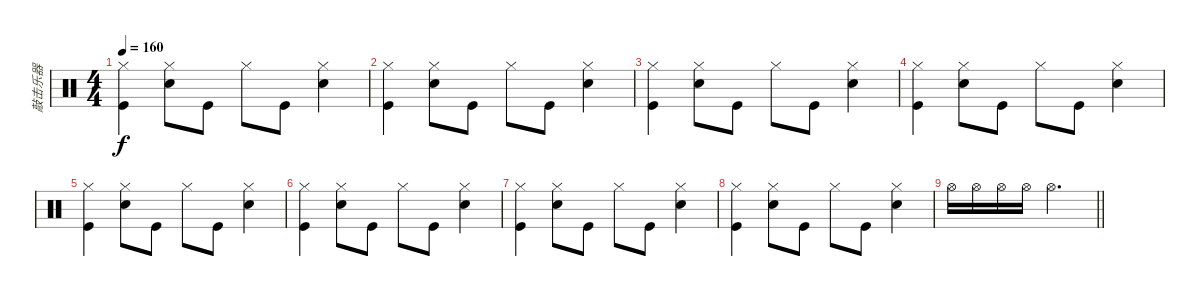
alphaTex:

\track ("敲击乐器" "敲击乐器") {instrument percussion}
\staff {score}
\articulation defaults
\ts (4 4)
\tempo 160
\clef neutral
\ks c
("Kick (hit)" "Hi-Hat (closed)").4{dy f} ("Hi-Hat (closed)" "Snare (hit) 2").8 "Kick (hit)".8 "Hi-Hat (closed)".8 "Kick (hit)".8 ("Hi-Hat (closed)" "Snare (hit) 2").4 |
("Kick (hit)" "Hi-Hat (closed)").4 ("Hi-Hat (closed)" "Snare (hit) 2").8 "Kick (hit)".8 "Hi-Hat (closed)".8 "Kick (hit)".8 ("Hi-Hat (closed)" "Snare (hit) 2").4 |
("Kick (hit)" "Hi-Hat (closed)").4 ("Hi-Hat (closed)" "Snare (hit) 2").8 "Kick (hit)".8 "Hi-Hat (closed)".8 "Kick (hit)".8 ("Hi-Hat (closed)" "Snare (hit) 2").4 |
("Kick (hit)" "Hi-Hat (closed)").4 ("Hi-Hat (closed)" "Snare (hit) 2").8 "Kick (hit)".8 "Hi-Hat (closed)".8 "Kick (hit)".8 ("Hi-Hat (closed)" "Snare (hit) 2").4 |
("Kick (hit)" "Hi-Hat (closed)").4 ("Hi-Hat (closed)" "Snare (hit) 2").8 "Kick (hit)".8 "Hi-Hat (closed)".8 "Kick (hit)".8 ("Hi-Hat (closed)" "Snare (hit) 2").4 |
("Kick (hit)" "Hi-Hat (closed)").4 ("Hi-Hat (closed)" "Snare (hit) 2").8 "Kick (hit)".8 "Hi-Hat (closed)".8 "Kick (hit)".8 ("Hi-Hat (closed)" "Snare (hit) 2").4 |
("Kick (hit)" "Hi-Hat (closed)").4 ("Hi-Hat (closed)" "Snare (hit) 2").8 "Kick (hit)".8 "Hi-Hat (closed)".8 "Kick (hit)".8 ("Hi-Hat (closed)" "Snare (hit) 2").4 |
("Kick (hit)" "Hi-Hat (closed)").4 ("Hi-Hat (closed)" "Snare (hit) 2").8 "Kick (hit)".8 "Hi-Hat (closed)".8 "Kick (hit)".8 ("Hi-Hat (closed)" "Snare (hit) 2").4 |
\barLineRight lightlight "Hi-Hat (open)".16 "Hi-Hat (open)".16 "Hi-Hat (open)".16 "Hi-Hat (open)".16 "Hi-Hat (open)".2{d}
